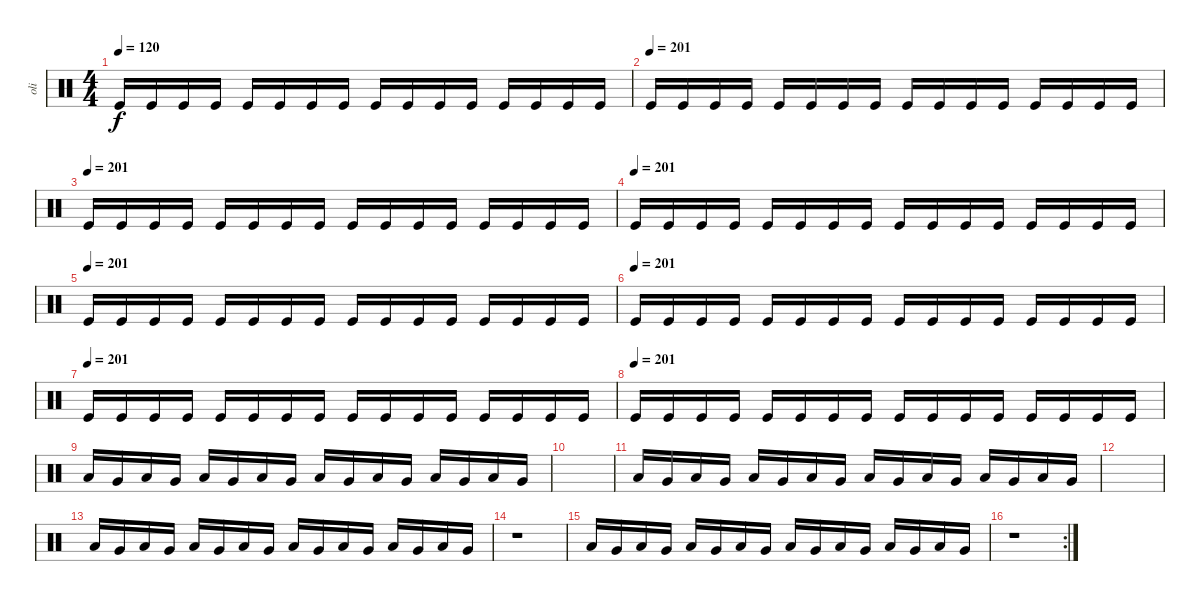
\track ("oli" "oli") {instrument percussion}
\staff {score}
\articulation defaults
\ts (4 4)
\tempo 120
\tempo 201
\tempo 120
\clef neutral
\ks c "Kick (hit)".16{dy f} "Kick (hit)".16 "Kick (hit)".16 "Kick (hit)".16 "Kick (hit)".16 "Kick (hit)".16 "Kick (hit)".16 "Kick (hit)".16 "Kick (hit)".16 "Kick (hit)".16 "Kick (hit)".16 "Kick (hit)".16 "Kick (hit)".16 "Kick (hit)".16 "Kick (hit)".16 "Kick (hit)".16
|
\tempo (201)
"Kick (hit)".16 "Kick (hit)".16 "Kick (hit)".16 "Kick (hit)".16 "Kick (hit)".16 "Kick (hit)".16 "Kick (hit)".16 "Kick (hit)".16 "Kick (hit)".16 "Kick (hit)".16 "Kick (hit)".16 "Kick (hit)".16 "Kick (hit)".16 "Kick (hit)".16 "Kick (hit)".16 "Kick (hit)".16 |
\tempo (201)
"Kick (hit)".16 "Kick (hit)".16 "Kick (hit)".16 "Kick (hit)".16 "Kick (hit)".16 "Kick (hit)".16 "Kick (hit)".16 "Kick (hit)".16 "Kick (hit)".16 "Kick (hit)".16 "Kick (hit)".16 "Kick (hit)".16 "Kick (hit)".16 "Kick (hit)".16 "Kick (hit)".16 "Kick (hit)".16 |
\tempo (201)
"Kick (hit)".16 "Kick (hit)".16 "Kick (hit)".16 "Kick (hit)".16 "Kick (hit)".16 "Kick (hit)".16 "Kick (hit)".16 "Kick (hit)".16 "Kick (hit)".16 "Kick (hit)".16 "Kick (hit)".16 "Kick (hit)".16 "Kick (hit)".16 "Kick (hit)".16 "Kick (hit)".16 "Kick (hit)".16 |
\tempo (201)
"Kick (hit)".16 "Kick (hit)".16 "Kick (hit)".16 "Kick (hit)".16 "Kick (hit)".16 "Kick (hit)".16 "Kick (hit)".16 "Kick (hit)".16 "Kick (hit)".16 "Kick (hit)".16 "Kick (hit)".16 "Kick (hit)".16 "Kick (hit)".16 "Kick (hit)".16 "Kick (hit)".16 "Kick (hit)".16 |
\tempo (201)
"Kick (hit)".16 "Kick (hit)".16 "Kick (hit)".16 "Kick (hit)".16 "Kick (hit)".16 "Kick (hit)".16 "Kick (hit)".16 "Kick (hit)".16 "Kick (hit)".16 "Kick (hit)".16 "Kick (hit)".16 "Kick (hit)".16 "Kick (hit)".16 "Kick (hit)".16 "Kick (hit)".16 "Kick (hit)".16 |
\tempo (201)
"Kick (hit)".16 "Kick (hit)".16 "Kick (hit)".16 "Kick (hit)".16 "Kick (hit)".16 "Kick (hit)".16 "Kick (hit)".16 "Kick (hit)".16 "Kick (hit)".16 "Kick (hit)".16 "Kick (hit)".16 "Kick (hit)".16 "Kick (hit)".16 "Kick (hit)".16 "Kick (hit)".16 "Kick (hit)".16 |
\tempo (201)
"Kick (hit)".16 "Kick (hit)".16 "Kick (hit)".16 "Kick (hit)".16 "Kick (hit)".16 "Kick (hit)".16 "Kick (hit)".16 "Kick (hit)".16 "Kick (hit)".16 "Kick (hit)".16 "Kick (hit)".16 "Kick (hit)".16 "Kick (hit)".16 "Kick (hit)".16 "Kick (hit)".16 "Kick (hit)".16 |
"Low Tom (hit)".16 "Very Low Tom (hit)".16 "Low Tom (hit)".16 "Very Low Tom (hit)".16 "Low Tom (hit)".16 "Very Low Tom (hit)".16 "Low Tom (hit)".16 "Very Low Tom (hit)".16 "Low Tom (hit)".16 "Very Low Tom (hit)".16 "Low Tom (hit)".16 "Very Low Tom (hit)".16 "Low Tom (hit)".16 "Very Low Tom (hit)".16 "Low Tom (hit)".16 "Very Low Tom (hit)".16 |
|
"Low Tom (hit)".16 "Very Low Tom (hit)".16 "Low Tom (hit)".16 "Very Low Tom (hit)".16 "Low Tom (hit)".16 "Very Low Tom (hit)".16 "Low Tom (hit)".16 "Very Low Tom (hit)".16 "Low Tom (hit)".16 "Very Low Tom (hit)".16 "Low Tom (hit)".16 "Very Low Tom (hit)".16 "Low Tom (hit)".16 "Very Low Tom (hit)".16 "Low Tom (hit)".16 "Very Low Tom (hit)".16 |
|
"Low Tom (hit)".16 "Very Low Tom (hit)".16 "Low Tom (hit)".16 "Very Low Tom (hit)".16 "Low Tom (hit)".16 "Very Low Tom (hit)".16 "Low Tom (hit)".16 "Very Low Tom (hit)".16 "Low Tom (hit)".16 "Very Low Tom (hit)".16 "Low Tom (hit)".16 "Very Low Tom (hit)".16 "Low Tom (hit)".16 "Very Low Tom (hit)".16 "Low Tom (hit)".16 "Very Low Tom (hit)".16 |
r.1 |
"Low Tom (hit)".16 "Very Low Tom (hit)".16 "Low Tom (hit)".16 "Very Low Tom (hit)".16 "Low Tom (hit)".16 "Very Low Tom (hit)".16 "Low Tom (hit)".16 "Very Low Tom (hit)".16 "Low Tom (hit)".16 "Very Low Tom (hit)".16 "Low Tom (hit)".16 "Very Low Tom (hit)".16 "Low Tom (hit)".16 "Very Low Tom (hit)".16 "Low Tom (hit)".16 "Very Low Tom (hit)".16 |
\rc 2
r.1
